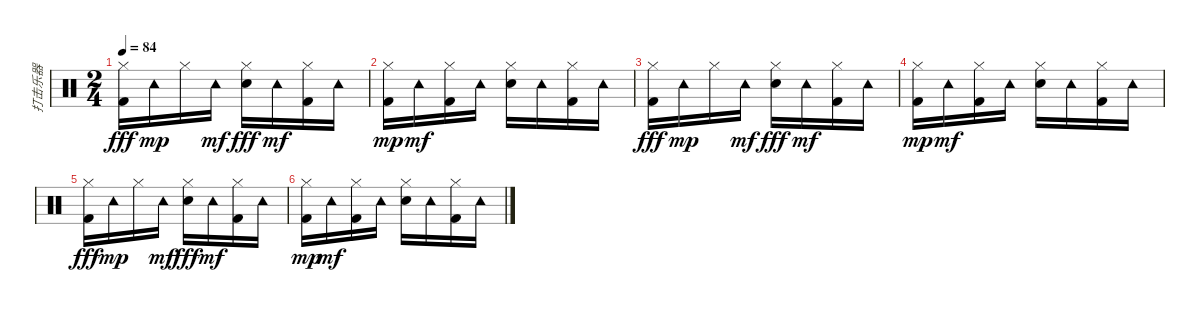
\track ("打击乐器" "打击乐器") {instrument percussion}
\staff {score}
\articulation defaults
\ts (2 4)
\tempo 84
\clef neutral
\ks c
("Hi-Hat (closed)" "Kick (hit) 2").16{dy fff} "Tambourine (hit)".16{dy mp} "Hi-Hat (closed)".16 "Tambourine (hit)".16{dy mf} ("Hi-Hat (closed)" "Snare (hit) 2").16{dy fff} "Tambourine (hit)".16{dy mf} ("Hi-Hat (closed)" "Kick (hit) 2").16 "Tambourine (hit)".16 |
("Hi-Hat (closed)" "Kick (hit) 2").16{dy mp} "Tambourine (hit)".16{dy mf} ("Hi-Hat (closed)" "Kick (hit) 2").16 "Tambourine (hit)".16 ("Hi-Hat (closed)" "Snare (hit) 2").16 "Tambourine (hit)".16 ("Hi-Hat (closed)" "Kick (hit) 2").16 "Tambourine (hit)".16 |
("Hi-Hat (closed)" "Kick (hit) 2").16{dy fff} "Tambourine (hit)".16{dy mp} "Hi-Hat (closed)".16 "Tambourine (hit)".16{dy mf} ("Hi-Hat (closed)" "Snare (hit) 2").16{dy fff} "Tambourine (hit)".16{dy mf} ("Hi-Hat (closed)" "Kick (hit) 2").16 "Tambourine (hit)".16 |
("Hi-Hat (closed)" "Kick (hit) 2").16{dy mp} "Tambourine (hit)".16{dy mf} ("Hi-Hat (closed)" "Kick (hit) 2").16 "Tambourine (hit)".16 ("Hi-Hat (closed)" "Snare (hit) 2").16 "Tambourine (hit)".16 ("Hi-Hat (closed)" "Kick (hit) 2").16 "Tambourine (hit)".16 |
("Hi-Hat (closed)" "Kick (hit) 2").16{dy fff} "Tambourine (hit)".16{dy mp} "Hi-Hat (closed)".16 "Tambourine (hit)".16{dy mf} ("Hi-Hat (closed)" "Snare (hit) 2").16{dy fff} "Tambourine (hit)".16{dy mf} ("Hi-Hat (closed)" "Kick (hit) 2").16 "Tambourine (hit)".16 |
("Hi-Hat (closed)" "Kick (hit) 2").16{dy mp} "Tambourine (hit)".16{dy mf} ("Hi-Hat (closed)" "Kick (hit) 2").16 "Tambourine (hit)".16 ("Hi-Hat (closed)" "Snare (hit) 2").16 "Tambourine (hit)".16 ("Hi-Hat (closed)" "Kick (hit) 2").16 "Tambourine (hit)".16
